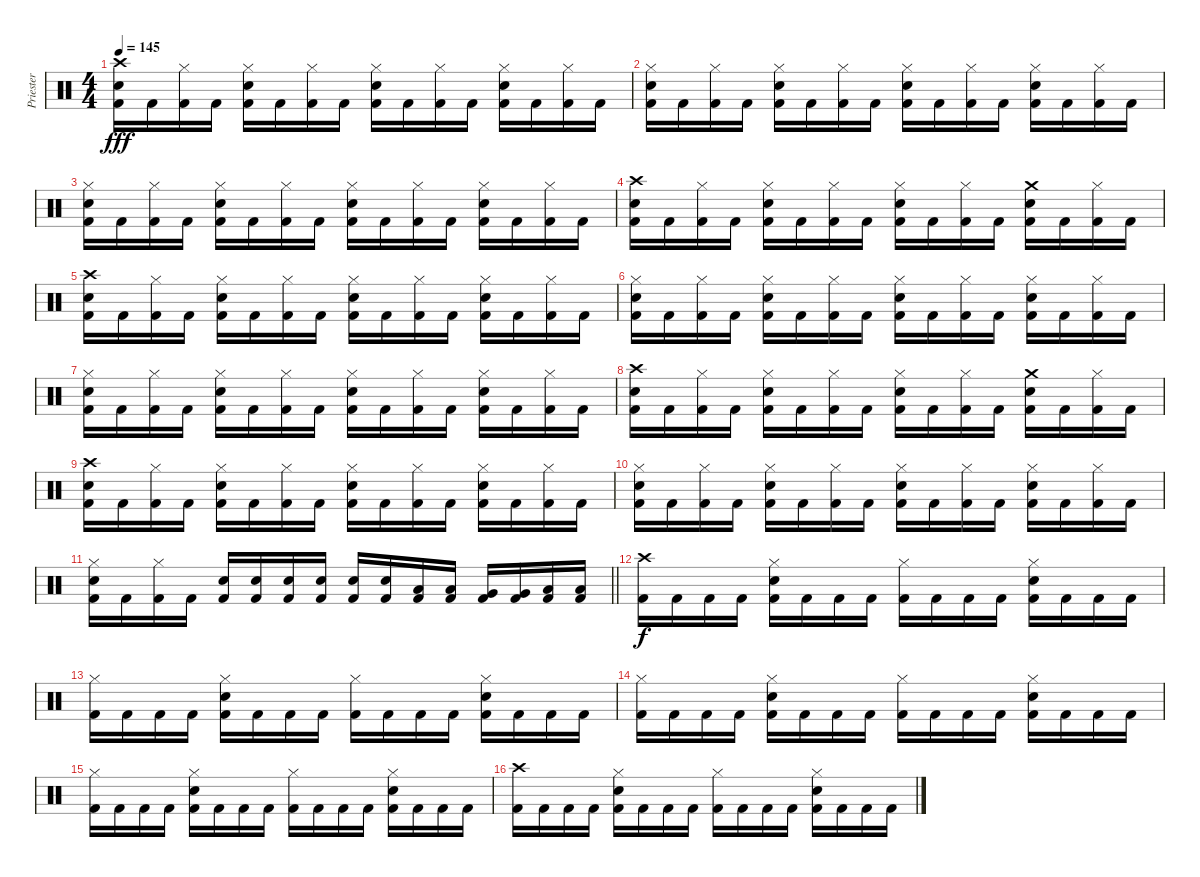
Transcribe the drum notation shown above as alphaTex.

\track ("Priester" "Priester") {instrument percussion}
\staff {score}
\articulation defaults
\ts (4 4)
\tempo 145
\clef neutral
\ks c
("Crash high (hit)" "Electric Snare (hit)" "Kick (hit) 2").16{dy fff} "Kick (hit) 2".16 ("Hi-Hat (closed)" "Kick (hit) 2").16 "Kick (hit) 2".16 ("Hi-Hat (closed)" "Electric Snare (hit)" "Kick (hit) 2").16 "Kick (hit) 2".16 ("Hi-Hat (closed)" "Kick (hit) 2").16 "Kick (hit) 2".16 ("Hi-Hat (closed)" "Electric Snare (hit)" "Kick (hit) 2").16 "Kick (hit) 2".16 ("Hi-Hat (closed)" "Kick (hit) 2").16 "Kick (hit) 2".16 ("Hi-Hat (closed)" "Electric Snare (hit)" "Kick (hit) 2").16 "Kick (hit) 2".16 ("Hi-Hat (closed)" "Kick (hit) 2").16 "Kick (hit) 2".16 |
("Hi-Hat (closed)" "Electric Snare (hit)" "Kick (hit) 2").16 "Kick (hit) 2".16 ("Hi-Hat (closed)" "Kick (hit) 2").16 "Kick (hit) 2".16 ("Hi-Hat (closed)" "Electric Snare (hit)" "Kick (hit) 2").16 "Kick (hit) 2".16 ("Hi-Hat (closed)" "Kick (hit) 2").16 "Kick (hit) 2".16 ("Hi-Hat (closed)" "Electric Snare (hit)" "Kick (hit) 2").16 "Kick (hit) 2".16 ("Hi-Hat (closed)" "Kick (hit) 2").16 "Kick (hit) 2".16 ("Hi-Hat (closed)" "Electric Snare (hit)" "Kick (hit) 2").16 "Kick (hit) 2".16 ("Hi-Hat (closed)" "Kick (hit) 2").16 "Kick (hit) 2".16 |
("Hi-Hat (closed)" "Electric Snare (hit)" "Kick (hit) 2").16 "Kick (hit) 2".16 ("Hi-Hat (closed)" "Kick (hit) 2").16 "Kick (hit) 2".16 ("Hi-Hat (closed)" "Electric Snare (hit)" "Kick (hit) 2").16 "Kick (hit) 2".16 ("Hi-Hat (closed)" "Kick (hit) 2").16 "Kick (hit) 2".16 ("Hi-Hat (closed)" "Electric Snare (hit)" "Kick (hit) 2").16 "Kick (hit) 2".16 ("Hi-Hat (closed)" "Kick (hit) 2").16 "Kick (hit) 2".16 ("Hi-Hat (closed)" "Electric Snare (hit)" "Kick (hit) 2").16 "Kick (hit) 2".16 ("Hi-Hat (closed)" "Kick (hit) 2").16 "Kick (hit) 2".16 |
("Crash high (hit)" "Electric Snare (hit)" "Kick (hit) 2").16 "Kick (hit) 2".16 ("Hi-Hat (closed)" "Kick (hit) 2").16 "Kick (hit) 2".16 ("Hi-Hat (closed)" "Electric Snare (hit)" "Kick (hit) 2").16 "Kick (hit) 2".16 ("Hi-Hat (closed)" "Kick (hit) 2").16 "Kick (hit) 2".16 ("Hi-Hat (closed)" "Electric Snare (hit)" "Kick (hit) 2").16 "Kick (hit) 2".16 ("Hi-Hat (closed)" "Kick (hit) 2").16 "Kick (hit) 2".16 ("Crash medium (hit)" "Electric Snare (hit)" "Kick (hit) 2").16 "Kick (hit) 2".16 ("Hi-Hat (closed)" "Kick (hit) 2").16 "Kick (hit) 2".16 |
("Crash high (hit)" "Electric Snare (hit)" "Kick (hit) 2").16 "Kick (hit) 2".16 ("Hi-Hat (closed)" "Kick (hit) 2").16 "Kick (hit) 2".16 ("Hi-Hat (closed)" "Electric Snare (hit)" "Kick (hit) 2").16 "Kick (hit) 2".16 ("Hi-Hat (closed)" "Kick (hit) 2").16 "Kick (hit) 2".16 ("Hi-Hat (closed)" "Electric Snare (hit)" "Kick (hit) 2").16 "Kick (hit) 2".16 ("Hi-Hat (closed)" "Kick (hit) 2").16 "Kick (hit) 2".16 ("Hi-Hat (closed)" "Electric Snare (hit)" "Kick (hit) 2").16 "Kick (hit) 2".16 ("Hi-Hat (closed)" "Kick (hit) 2").16 "Kick (hit) 2".16 |
("Hi-Hat (closed)" "Electric Snare (hit)" "Kick (hit) 2").16 "Kick (hit) 2".16 ("Hi-Hat (closed)" "Kick (hit) 2").16 "Kick (hit) 2".16 ("Hi-Hat (closed)" "Electric Snare (hit)" "Kick (hit) 2").16 "Kick (hit) 2".16 ("Hi-Hat (closed)" "Kick (hit) 2").16 "Kick (hit) 2".16 ("Hi-Hat (closed)" "Electric Snare (hit)" "Kick (hit) 2").16 "Kick (hit) 2".16 ("Hi-Hat (closed)" "Kick (hit) 2").16 "Kick (hit) 2".16 ("Hi-Hat (closed)" "Electric Snare (hit)" "Kick (hit) 2").16 "Kick (hit) 2".16 ("Hi-Hat (closed)" "Kick (hit) 2").16 "Kick (hit) 2".16 |
("Hi-Hat (closed)" "Electric Snare (hit)" "Kick (hit) 2").16 "Kick (hit) 2".16 ("Hi-Hat (closed)" "Kick (hit) 2").16 "Kick (hit) 2".16 ("Hi-Hat (closed)" "Electric Snare (hit)" "Kick (hit) 2").16 "Kick (hit) 2".16 ("Hi-Hat (closed)" "Kick (hit) 2").16 "Kick (hit) 2".16 ("Hi-Hat (closed)" "Electric Snare (hit)" "Kick (hit) 2").16 "Kick (hit) 2".16 ("Hi-Hat (closed)" "Kick (hit) 2").16 "Kick (hit) 2".16 ("Hi-Hat (closed)" "Electric Snare (hit)" "Kick (hit) 2").16 "Kick (hit) 2".16 ("Hi-Hat (closed)" "Kick (hit) 2").16 "Kick (hit) 2".16 |
("Crash high (hit)" "Electric Snare (hit)" "Kick (hit) 2").16 "Kick (hit) 2".16 ("Hi-Hat (closed)" "Kick (hit) 2").16 "Kick (hit) 2".16 ("Hi-Hat (closed)" "Electric Snare (hit)" "Kick (hit) 2").16 "Kick (hit) 2".16 ("Hi-Hat (closed)" "Kick (hit) 2").16 "Kick (hit) 2".16 ("Hi-Hat (closed)" "Electric Snare (hit)" "Kick (hit) 2").16 "Kick (hit) 2".16 ("Hi-Hat (closed)" "Kick (hit) 2").16 "Kick (hit) 2".16 ("Crash medium (hit)" "Electric Snare (hit)" "Kick (hit) 2").16 "Kick (hit) 2".16 ("Hi-Hat (closed)" "Kick (hit) 2").16 "Kick (hit) 2".16 |
("Crash high (hit)" "Electric Snare (hit)" "Kick (hit) 2").16 "Kick (hit) 2".16 ("Hi-Hat (closed)" "Kick (hit) 2").16 "Kick (hit) 2".16 ("Hi-Hat (closed)" "Electric Snare (hit)" "Kick (hit) 2").16 "Kick (hit) 2".16 ("Hi-Hat (closed)" "Kick (hit) 2").16 "Kick (hit) 2".16 ("Hi-Hat (closed)" "Electric Snare (hit)" "Kick (hit) 2").16 "Kick (hit) 2".16 ("Hi-Hat (closed)" "Kick (hit) 2").16 "Kick (hit) 2".16 ("Hi-Hat (closed)" "Electric Snare (hit)" "Kick (hit) 2").16 "Kick (hit) 2".16 ("Hi-Hat (closed)" "Kick (hit) 2").16 "Kick (hit) 2".16 |
("Hi-Hat (closed)" "Electric Snare (hit)" "Kick (hit) 2").16 "Kick (hit) 2".16 ("Hi-Hat (closed)" "Kick (hit) 2").16 "Kick (hit) 2".16 ("Hi-Hat (closed)" "Electric Snare (hit)" "Kick (hit) 2").16 "Kick (hit) 2".16 ("Hi-Hat (closed)" "Kick (hit) 2").16 "Kick (hit) 2".16 ("Hi-Hat (closed)" "Electric Snare (hit)" "Kick (hit) 2").16 "Kick (hit) 2".16 ("Hi-Hat (closed)" "Kick (hit) 2").16 "Kick (hit) 2".16 ("Hi-Hat (closed)" "Electric Snare (hit)" "Kick (hit) 2").16 "Kick (hit) 2".16 ("Hi-Hat (closed)" "Kick (hit) 2").16 "Kick (hit) 2".16 |
\barLineRight lightlight
("Hi-Hat (closed)" "Electric Snare (hit)" "Kick (hit) 2").16 "Kick (hit) 2".16 ("Hi-Hat (closed)" "Kick (hit) 2").16 "Kick (hit) 2".16 ("Electric Snare (hit)" "Kick (hit) 2").16 ("Electric Snare (hit)" "Kick (hit) 2").16 ("Electric Snare (hit)" "Kick (hit) 2").16 ("Electric Snare (hit)" "Kick (hit) 2").16 ("Electric Snare (hit)" "Kick (hit) 2").16 ("Electric Snare (hit)" "Kick (hit) 2").16 ("Low Tom (hit)" "Kick (hit) 2").16 ("Low Tom (hit)" "Kick (hit) 2").16 ("Very Low Tom (hit)" "Kick (hit) 2").16 ("Very Low Tom (hit)" "Kick (hit) 2").16 ("Low Floor Tom (hit)" "Kick (hit) 2").16 ("Low Floor Tom (hit)" "Kick (hit) 2").16 |
("Crash high (hit)" "Kick (hit) 2").16{dy f} "Kick (hit) 2".16 "Kick (hit) 2".16 "Kick (hit) 2".16 ("Hi-Hat (closed)" "Electric Snare (hit)" "Kick (hit) 2").16 "Kick (hit) 2".16 "Kick (hit) 2".16 "Kick (hit) 2".16 ("Hi-Hat (closed)" "Kick (hit) 2").16 "Kick (hit) 2".16 "Kick (hit) 2".16 "Kick (hit) 2".16 ("Hi-Hat (closed)" "Electric Snare (hit)" "Kick (hit) 2").16 "Kick (hit) 2".16 "Kick (hit) 2".16 "Kick (hit) 2".16 |
("Hi-Hat (closed)" "Kick (hit) 2").16 "Kick (hit) 2".16 "Kick (hit) 2".16 "Kick (hit) 2".16 ("Hi-Hat (closed)" "Electric Snare (hit)" "Kick (hit) 2").16 "Kick (hit) 2".16 "Kick (hit) 2".16 "Kick (hit) 2".16 ("Hi-Hat (closed)" "Kick (hit) 2").16 "Kick (hit) 2".16 "Kick (hit) 2".16 "Kick (hit) 2".16 ("Hi-Hat (closed)" "Electric Snare (hit)" "Kick (hit) 2").16 "Kick (hit) 2".16 "Kick (hit) 2".16 "Kick (hit) 2".16 |
("Hi-Hat (closed)" "Kick (hit) 2").16 "Kick (hit) 2".16 "Kick (hit) 2".16 "Kick (hit) 2".16 ("Hi-Hat (closed)" "Electric Snare (hit)" "Kick (hit) 2").16 "Kick (hit) 2".16 "Kick (hit) 2".16 "Kick (hit) 2".16 ("Hi-Hat (closed)" "Kick (hit) 2").16 "Kick (hit) 2".16 "Kick (hit) 2".16 "Kick (hit) 2".16 ("Hi-Hat (closed)" "Electric Snare (hit)" "Kick (hit) 2").16 "Kick (hit) 2".16 "Kick (hit) 2".16 "Kick (hit) 2".16 |
("Hi-Hat (closed)" "Kick (hit) 2").16 "Kick (hit) 2".16 "Kick (hit) 2".16 "Kick (hit) 2".16 ("Hi-Hat (closed)" "Electric Snare (hit)" "Kick (hit) 2").16 "Kick (hit) 2".16 "Kick (hit) 2".16 "Kick (hit) 2".16 ("Hi-Hat (closed)" "Kick (hit) 2").16 "Kick (hit) 2".16 "Kick (hit) 2".16 "Kick (hit) 2".16 ("Hi-Hat (closed)" "Electric Snare (hit)" "Kick (hit) 2").16 "Kick (hit) 2".16 "Kick (hit) 2".16 "Kick (hit) 2".16 |
("Crash high (hit)" "Kick (hit) 2").16 "Kick (hit) 2".16 "Kick (hit) 2".16 "Kick (hit) 2".16 ("Hi-Hat (closed)" "Electric Snare (hit)" "Kick (hit) 2").16 "Kick (hit) 2".16 "Kick (hit) 2".16 "Kick (hit) 2".16 ("Hi-Hat (closed)" "Kick (hit) 2").16 "Kick (hit) 2".16 "Kick (hit) 2".16 "Kick (hit) 2".16 ("Hi-Hat (closed)" "Electric Snare (hit)" "Kick (hit) 2").16 "Kick (hit) 2".16 "Kick (hit) 2".16 "Kick (hit) 2".16
